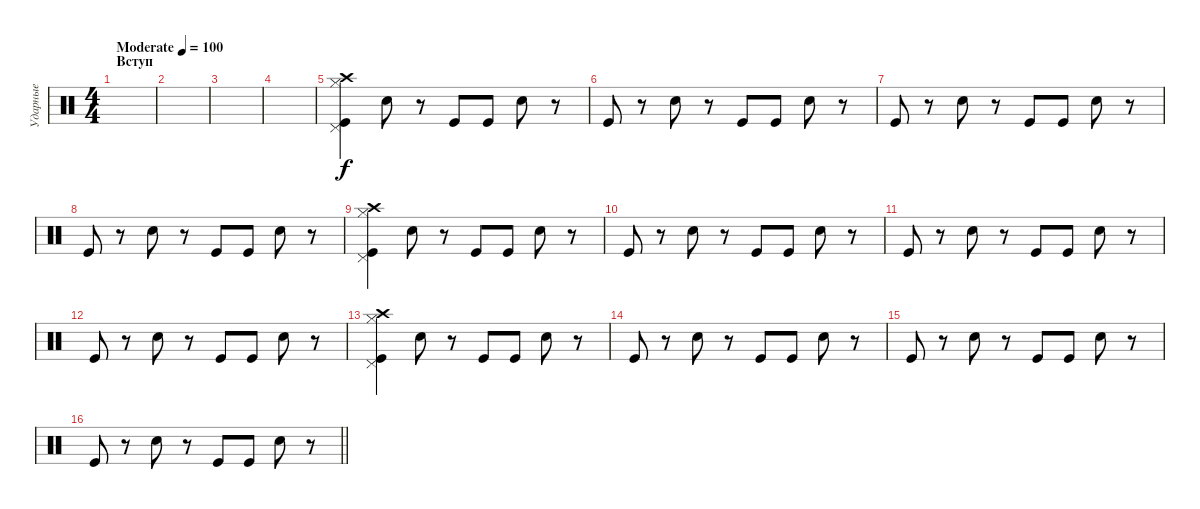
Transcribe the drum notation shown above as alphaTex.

\track ("Ударные" "Ударные") {instrument percussion}
\staff {score}
\articulation defaults
\ts (4 4)
\section ("" "Вступ ")
\tempo (100 "Moderate")
\clef neutral
\ks c
|
|
|
|
("Crash high (hit)" "Hi-Hat (closed)" "Pedal Hi-Hat (hit)" "Kick (hit)").4 "Electric Snare (hit)".8 r.8 "Kick (hit)".8 "Kick (hit)".8 "Electric Snare (hit)".8 r.8 |
"Kick (hit)".8 r.8 "Electric Snare (hit)".8 r.8 "Kick (hit)".8 "Kick (hit)".8 "Electric Snare (hit)".8 r.8 |
"Kick (hit)".8 r.8 "Electric Snare (hit)".8 r.8 "Kick (hit)".8 "Kick (hit)".8 "Electric Snare (hit)".8 r.8 |
"Kick (hit)".8 r.8 "Electric Snare (hit)".8 r.8 "Kick (hit)".8 "Kick (hit)".8 "Electric Snare (hit)".8 r.8 |
("Crash high (hit)" "Hi-Hat (closed)" "Pedal Hi-Hat (hit)" "Kick (hit)").4 "Electric Snare (hit)".8 r.8 "Kick (hit)".8 "Kick (hit)".8 "Electric Snare (hit)".8 r.8 |
"Kick (hit)".8 r.8 "Electric Snare (hit)".8 r.8 "Kick (hit)".8 "Kick (hit)".8 "Electric Snare (hit)".8 r.8 |
"Kick (hit)".8 r.8 "Electric Snare (hit)".8 r.8 "Kick (hit)".8 "Kick (hit)".8 "Electric Snare (hit)".8 r.8 |
"Kick (hit)".8 r.8 "Electric Snare (hit)".8 r.8 "Kick (hit)".8 "Kick (hit)".8 "Electric Snare (hit)".8 r.8 |
("Crash high (hit)" "Hi-Hat (closed)" "Pedal Hi-Hat (hit)" "Kick (hit)").4 "Electric Snare (hit)".8 r.8 "Kick (hit)".8 "Kick (hit)".8 "Electric Snare (hit)".8 r.8 |
"Kick (hit)".8 r.8 "Electric Snare (hit)".8 r.8 "Kick (hit)".8 "Kick (hit)".8 "Electric Snare (hit)".8 r.8 |
"Kick (hit)".8 r.8 "Electric Snare (hit)".8 r.8 "Kick (hit)".8 "Kick (hit)".8 "Electric Snare (hit)".8 r.8 |
\barLineRight lightlight "Kick (hit)".8
r.8 "Electric Snare (hit)".8 r.8 "Kick (hit)".8 "Kick (hit)".8 "Electric Snare (hit)".8 r.8
